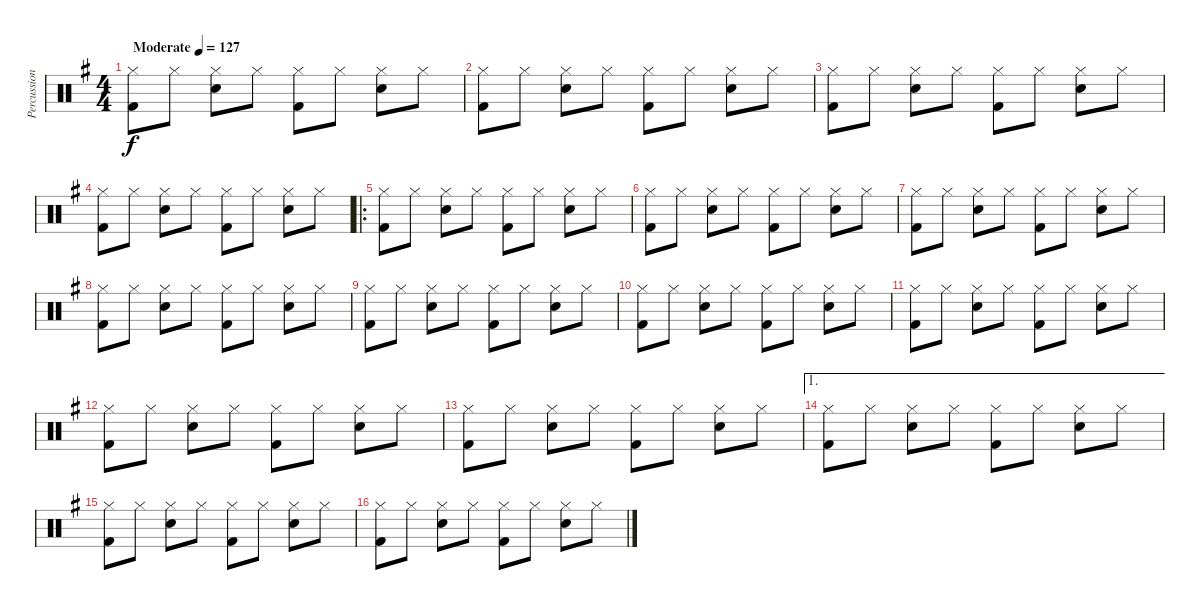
\track ("Percussion" "Percussion") {instrument percussion}
\staff {score}
\articulation defaults
\ts (4 4)
\tempo (127 "Moderate")
\clef neutral
\ks g
("Hi-Hat (closed)" "Kick (hit) 2").8{dy f} "Hi-Hat (closed)".8 ("Hi-Hat (closed)" "Snare (hit) 2").8 "Hi-Hat (closed)".8 ("Hi-Hat (closed)" "Kick (hit) 2").8 "Hi-Hat (closed)".8 ("Hi-Hat (closed)" "Snare (hit) 2").8 "Hi-Hat (closed)".8 |
("Hi-Hat (closed)" "Kick (hit) 2").8 "Hi-Hat (closed)".8 ("Hi-Hat (closed)" "Snare (hit) 2").8 "Hi-Hat (closed)".8 ("Hi-Hat (closed)" "Kick (hit) 2").8 "Hi-Hat (closed)".8 ("Hi-Hat (closed)" "Snare (hit) 2").8 "Hi-Hat (closed)".8 |
("Hi-Hat (closed)" "Kick (hit) 2").8 "Hi-Hat (closed)".8 ("Hi-Hat (closed)" "Snare (hit) 2").8 "Hi-Hat (closed)".8 ("Hi-Hat (closed)" "Kick (hit) 2").8 "Hi-Hat (closed)".8 ("Hi-Hat (closed)" "Snare (hit) 2").8 "Hi-Hat (closed)".8 |
("Hi-Hat (closed)" "Kick (hit) 2").8 "Hi-Hat (closed)".8 ("Hi-Hat (closed)" "Snare (hit) 2").8 "Hi-Hat (closed)".8 ("Hi-Hat (closed)" "Kick (hit) 2").8 "Hi-Hat (closed)".8 ("Hi-Hat (closed)" "Snare (hit) 2").8 "Hi-Hat (closed)".8 |
\ro
("Hi-Hat (closed)" "Kick (hit) 2").8 "Hi-Hat (closed)".8 ("Hi-Hat (closed)" "Snare (hit) 2").8 "Hi-Hat (closed)".8 ("Hi-Hat (closed)" "Kick (hit) 2").8 "Hi-Hat (closed)".8 ("Hi-Hat (closed)" "Snare (hit) 2").8 "Hi-Hat (closed)".8 |
("Hi-Hat (closed)" "Kick (hit) 2").8 "Hi-Hat (closed)".8 ("Hi-Hat (closed)" "Snare (hit) 2").8 "Hi-Hat (closed)".8 ("Hi-Hat (closed)" "Kick (hit) 2").8 "Hi-Hat (closed)".8 ("Hi-Hat (closed)" "Snare (hit) 2").8 "Hi-Hat (closed)".8 |
("Hi-Hat (closed)" "Kick (hit) 2").8 "Hi-Hat (closed)".8 ("Hi-Hat (closed)" "Snare (hit) 2").8 "Hi-Hat (closed)".8 ("Hi-Hat (closed)" "Kick (hit) 2").8 "Hi-Hat (closed)".8 ("Hi-Hat (closed)" "Snare (hit) 2").8 "Hi-Hat (closed)".8 |
("Hi-Hat (closed)" "Kick (hit) 2").8 "Hi-Hat (closed)".8 ("Hi-Hat (closed)" "Snare (hit) 2").8 "Hi-Hat (closed)".8 ("Hi-Hat (closed)" "Kick (hit) 2").8 "Hi-Hat (closed)".8 ("Hi-Hat (closed)" "Snare (hit) 2").8 "Hi-Hat (closed)".8 |
("Hi-Hat (closed)" "Kick (hit) 2").8 "Hi-Hat (closed)".8 ("Hi-Hat (closed)" "Snare (hit) 2").8 "Hi-Hat (closed)".8 ("Hi-Hat (closed)" "Kick (hit) 2").8 "Hi-Hat (closed)".8 ("Hi-Hat (closed)" "Snare (hit) 2").8 "Hi-Hat (closed)".8 |
("Hi-Hat (closed)" "Kick (hit) 2").8 "Hi-Hat (closed)".8 ("Hi-Hat (closed)" "Snare (hit) 2").8 "Hi-Hat (closed)".8 ("Hi-Hat (closed)" "Kick (hit) 2").8 "Hi-Hat (closed)".8 ("Hi-Hat (closed)" "Snare (hit) 2").8 "Hi-Hat (closed)".8 |
("Hi-Hat (closed)" "Kick (hit) 2").8 "Hi-Hat (closed)".8 ("Hi-Hat (closed)" "Snare (hit) 2").8 "Hi-Hat (closed)".8 ("Hi-Hat (closed)" "Kick (hit) 2").8 "Hi-Hat (closed)".8 ("Hi-Hat (closed)" "Snare (hit) 2").8 "Hi-Hat (closed)".8 |
("Hi-Hat (closed)" "Kick (hit) 2").8 "Hi-Hat (closed)".8 ("Hi-Hat (closed)" "Snare (hit) 2").8 "Hi-Hat (closed)".8 ("Hi-Hat (closed)" "Kick (hit) 2").8 "Hi-Hat (closed)".8 ("Hi-Hat (closed)" "Snare (hit) 2").8 "Hi-Hat (closed)".8 |
("Hi-Hat (closed)" "Kick (hit) 2").8 "Hi-Hat (closed)".8 ("Hi-Hat (closed)" "Snare (hit) 2").8 "Hi-Hat (closed)".8 ("Hi-Hat (closed)" "Kick (hit) 2").8 "Hi-Hat (closed)".8 ("Hi-Hat (closed)" "Snare (hit) 2").8 "Hi-Hat (closed)".8 |
\ae 1
("Hi-Hat (closed)" "Kick (hit) 2").8 "Hi-Hat (closed)".8 ("Hi-Hat (closed)" "Snare (hit) 2").8 "Hi-Hat (closed)".8 ("Hi-Hat (closed)" "Kick (hit) 2").8 "Hi-Hat (closed)".8 ("Hi-Hat (closed)" "Snare (hit) 2").8 "Hi-Hat (closed)".8 |
("Hi-Hat (closed)" "Kick (hit) 2").8 "Hi-Hat (closed)".8 ("Hi-Hat (closed)" "Snare (hit) 2").8 "Hi-Hat (closed)".8 ("Hi-Hat (closed)" "Kick (hit) 2").8 "Hi-Hat (closed)".8 ("Hi-Hat (closed)" "Snare (hit) 2").8 "Hi-Hat (closed)".8 |
("Hi-Hat (closed)" "Kick (hit) 2").8 "Hi-Hat (closed)".8 ("Hi-Hat (closed)" "Snare (hit) 2").8 "Hi-Hat (closed)".8 ("Hi-Hat (closed)" "Kick (hit) 2").8 "Hi-Hat (closed)".8 ("Hi-Hat (closed)" "Snare (hit) 2").8 "Hi-Hat (closed)".8
